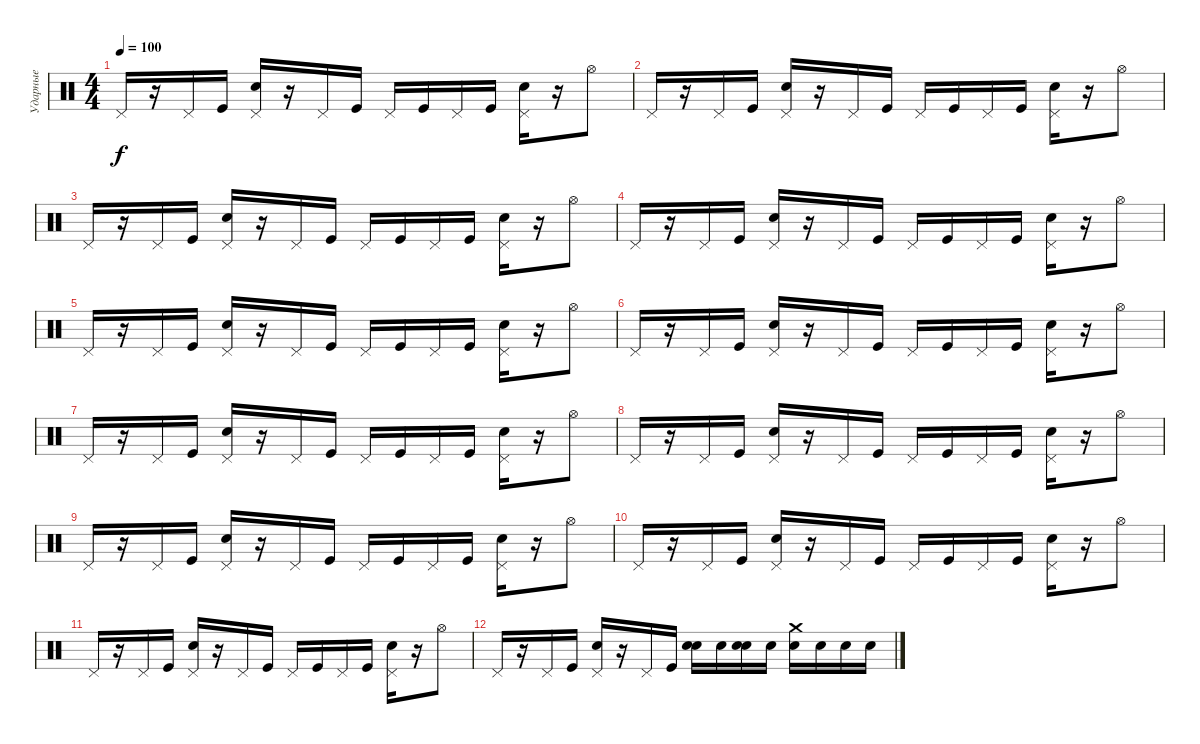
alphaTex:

\track ("Ударные" "Ударные") {instrument percussion}
\staff {score}
\articulation defaults
\ts (4 4)
\tempo 100
\clef neutral
\ks c "Pedal Hi-Hat (hit)".16{dy f}
r.16 "Pedal Hi-Hat (hit)".16 "Kick (hit)".16 ("Electric Snare (hit)" "Pedal Hi-Hat (hit)").16 r.16 "Pedal Hi-Hat (hit)".16 "Kick (hit)".16 "Pedal Hi-Hat (hit)".16 "Kick (hit)".16 "Pedal Hi-Hat (hit)".16 "Kick (hit)".16 ("Electric Snare (hit)" "Pedal Hi-Hat (hit)").16 r.16 "Hi-Hat (open)".8 |
"Pedal Hi-Hat (hit)".16 r.16 "Pedal Hi-Hat (hit)".16 "Kick (hit)".16 ("Electric Snare (hit)" "Pedal Hi-Hat (hit)").16 r.16 "Pedal Hi-Hat (hit)".16 "Kick (hit)".16 "Pedal Hi-Hat (hit)".16 "Kick (hit)".16 "Pedal Hi-Hat (hit)".16 "Kick (hit)".16 ("Electric Snare (hit)" "Pedal Hi-Hat (hit)").16 r.16 "Hi-Hat (open)".8 |
"Pedal Hi-Hat (hit)".16 r.16 "Pedal Hi-Hat (hit)".16 "Kick (hit)".16 ("Electric Snare (hit)" "Pedal Hi-Hat (hit)").16 r.16 "Pedal Hi-Hat (hit)".16 "Kick (hit)".16 "Pedal Hi-Hat (hit)".16 "Kick (hit)".16 "Pedal Hi-Hat (hit)".16 "Kick (hit)".16 ("Electric Snare (hit)" "Pedal Hi-Hat (hit)").16 r.16 "Hi-Hat (open)".8 |
"Pedal Hi-Hat (hit)".16 r.16 "Pedal Hi-Hat (hit)".16 "Kick (hit)".16 ("Electric Snare (hit)" "Pedal Hi-Hat (hit)").16 r.16 "Pedal Hi-Hat (hit)".16 "Kick (hit)".16 "Pedal Hi-Hat (hit)".16 "Kick (hit)".16 "Pedal Hi-Hat (hit)".16 "Kick (hit)".16 ("Electric Snare (hit)" "Pedal Hi-Hat (hit)").16 r.16 "Hi-Hat (open)".8 |
"Pedal Hi-Hat (hit)".16 r.16 "Pedal Hi-Hat (hit)".16 "Kick (hit)".16 ("Electric Snare (hit)" "Pedal Hi-Hat (hit)").16 r.16 "Pedal Hi-Hat (hit)".16 "Kick (hit)".16 "Pedal Hi-Hat (hit)".16 "Kick (hit)".16 "Pedal Hi-Hat (hit)".16 "Kick (hit)".16 ("Electric Snare (hit)" "Pedal Hi-Hat (hit)").16 r.16 "Hi-Hat (open)".8 |
"Pedal Hi-Hat (hit)".16 r.16 "Pedal Hi-Hat (hit)".16 "Kick (hit)".16 ("Electric Snare (hit)" "Pedal Hi-Hat (hit)").16 r.16 "Pedal Hi-Hat (hit)".16 "Kick (hit)".16 "Pedal Hi-Hat (hit)".16 "Kick (hit)".16 "Pedal Hi-Hat (hit)".16 "Kick (hit)".16 ("Electric Snare (hit)" "Pedal Hi-Hat (hit)").16 r.16 "Hi-Hat (open)".8 |
"Pedal Hi-Hat (hit)".16 r.16 "Pedal Hi-Hat (hit)".16 "Kick (hit)".16 ("Electric Snare (hit)" "Pedal Hi-Hat (hit)").16 r.16 "Pedal Hi-Hat (hit)".16 "Kick (hit)".16 "Pedal Hi-Hat (hit)".16 "Kick (hit)".16 "Pedal Hi-Hat (hit)".16 "Kick (hit)".16 ("Electric Snare (hit)" "Pedal Hi-Hat (hit)").16 r.16 "Hi-Hat (open)".8 |
"Pedal Hi-Hat (hit)".16 r.16 "Pedal Hi-Hat (hit)".16 "Kick (hit)".16 ("Electric Snare (hit)" "Pedal Hi-Hat (hit)").16 r.16 "Pedal Hi-Hat (hit)".16 "Kick (hit)".16 "Pedal Hi-Hat (hit)".16 "Kick (hit)".16 "Pedal Hi-Hat (hit)".16 "Kick (hit)".16 ("Electric Snare (hit)" "Pedal Hi-Hat (hit)").16 r.16 "Hi-Hat (open)".8 |
"Pedal Hi-Hat (hit)".16 r.16 "Pedal Hi-Hat (hit)".16 "Kick (hit)".16 ("Electric Snare (hit)" "Pedal Hi-Hat (hit)").16 r.16 "Pedal Hi-Hat (hit)".16 "Kick (hit)".16 "Pedal Hi-Hat (hit)".16 "Kick (hit)".16 "Pedal Hi-Hat (hit)".16 "Kick (hit)".16 ("Electric Snare (hit)" "Pedal Hi-Hat (hit)").16 r.16 "Hi-Hat (open)".8 |
"Pedal Hi-Hat (hit)".16 r.16 "Pedal Hi-Hat (hit)".16 "Kick (hit)".16 ("Electric Snare (hit)" "Pedal Hi-Hat (hit)").16 r.16 "Pedal Hi-Hat (hit)".16 "Kick (hit)".16 "Pedal Hi-Hat (hit)".16 "Kick (hit)".16 "Pedal Hi-Hat (hit)".16 "Kick (hit)".16 ("Electric Snare (hit)" "Pedal Hi-Hat (hit)").16 r.16 "Hi-Hat (open)".8 |
"Pedal Hi-Hat (hit)".16 r.16 "Pedal Hi-Hat (hit)".16 "Kick (hit)".16 ("Electric Snare (hit)" "Pedal Hi-Hat (hit)").16 r.16 "Pedal Hi-Hat (hit)".16 "Kick (hit)".16 "Pedal Hi-Hat (hit)".16 "Kick (hit)".16 "Pedal Hi-Hat (hit)".16 "Kick (hit)".16 ("Electric Snare (hit)" "Pedal Hi-Hat (hit)").16 r.16 "Hi-Hat (open)".8 |
"Pedal Hi-Hat (hit)".16 r.16 "Pedal Hi-Hat (hit)".16 "Kick (hit)".16 ("Electric Snare (hit)" "Pedal Hi-Hat (hit)").16 r.16 "Pedal Hi-Hat (hit)".16 "Kick (hit)".16 ("Snare (hit) 2" "Electric Snare (hit)").16 "Electric Snare (hit)".16 ("Snare (hit) 2" "Electric Snare (hit)").16 "Electric Snare (hit)".16 ("Crash medium (hit)" "Electric Snare (hit)").16 "Electric Snare (hit)".16 "Electric Snare (hit)".16 "Electric Snare (hit)".16
